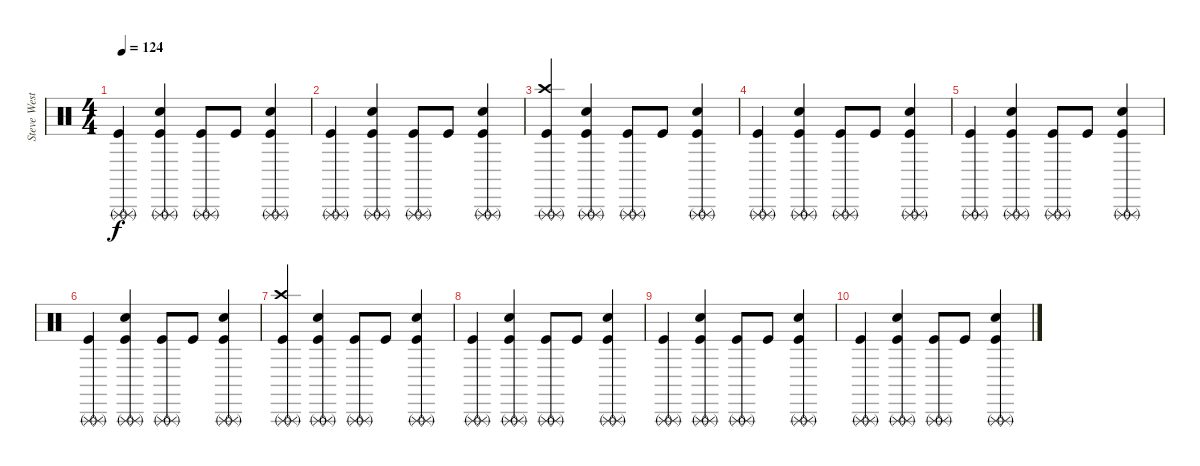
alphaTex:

\track ("Steve West" "Steve West") {instrument percussion}
\staff {score}
\articulation defaults
\ts (4 4)
\tempo 124
\clef neutral
\ks c
("Triangle (rnute)" "Triangle (rnute)" "Kick (hit)").4{dy f} ("Triangle (rnute)" "Triangle (rnute)" "Snare (hit) 2" "Kick (hit)").4 ("Triangle (rnute)" "Triangle (rnute)" "Kick (hit)").8 "Kick (hit)".8 ("Triangle (rnute)" "Triangle (rnute)" "Snare (hit) 2" "Kick (hit)").4 |
("Triangle (rnute)" "Triangle (rnute)" "Kick (hit)").4 ("Triangle (rnute)" "Triangle (rnute)" "Snare (hit) 2" "Kick (hit)").4 ("Triangle (rnute)" "Triangle (rnute)" "Kick (hit)").8 "Kick (hit)".8 ("Triangle (rnute)" "Triangle (rnute)" "Snare (hit) 2" "Kick (hit)").4 |
("Crash high (hit)" "Triangle (rnute)" "Triangle (rnute)" "Kick (hit)").4 ("Triangle (rnute)" "Triangle (rnute)" "Snare (hit) 2" "Kick (hit)").4 ("Triangle (rnute)" "Triangle (rnute)" "Kick (hit)").8 "Kick (hit)".8 ("Triangle (rnute)" "Triangle (rnute)" "Snare (hit) 2" "Kick (hit)").4 |
("Triangle (rnute)" "Triangle (rnute)" "Kick (hit)").4 ("Triangle (rnute)" "Triangle (rnute)" "Snare (hit) 2" "Kick (hit)").4 ("Triangle (rnute)" "Triangle (rnute)" "Kick (hit)").8 "Kick (hit)".8 ("Triangle (rnute)" "Triangle (rnute)" "Snare (hit) 2" "Kick (hit)").4 |
("Triangle (rnute)" "Triangle (rnute)" "Kick (hit)").4 ("Triangle (rnute)" "Triangle (rnute)" "Snare (hit) 2" "Kick (hit)").4 ("Triangle (rnute)" "Triangle (rnute)" "Kick (hit)").8 "Kick (hit)".8 ("Triangle (rnute)" "Triangle (rnute)" "Snare (hit) 2" "Kick (hit)").4 |
("Triangle (rnute)" "Triangle (rnute)" "Kick (hit)").4 ("Triangle (rnute)" "Triangle (rnute)" "Snare (hit) 2" "Kick (hit)").4 ("Triangle (rnute)" "Triangle (rnute)" "Kick (hit)").8 "Kick (hit)".8 ("Triangle (rnute)" "Triangle (rnute)" "Snare (hit) 2" "Kick (hit)").4 |
("Crash high (hit)" "Triangle (rnute)" "Triangle (rnute)" "Kick (hit)").4 ("Triangle (rnute)" "Triangle (rnute)" "Snare (hit) 2" "Kick (hit)").4 ("Triangle (rnute)" "Triangle (rnute)" "Kick (hit)").8 "Kick (hit)".8 ("Triangle (rnute)" "Triangle (rnute)" "Snare (hit) 2" "Kick (hit)").4 |
("Triangle (rnute)" "Triangle (rnute)" "Kick (hit)").4 ("Triangle (rnute)" "Triangle (rnute)" "Snare (hit) 2" "Kick (hit)").4 ("Triangle (rnute)" "Triangle (rnute)" "Kick (hit)").8 "Kick (hit)".8 ("Triangle (rnute)" "Triangle (rnute)" "Snare (hit) 2" "Kick (hit)").4 |
("Triangle (rnute)" "Triangle (rnute)" "Kick (hit)").4 ("Triangle (rnute)" "Triangle (rnute)" "Snare (hit) 2" "Kick (hit)").4 ("Triangle (rnute)" "Triangle (rnute)" "Kick (hit)").8 "Kick (hit)".8 ("Triangle (rnute)" "Triangle (rnute)" "Snare (hit) 2" "Kick (hit)").4 |
("Triangle (rnute)" "Triangle (rnute)" "Kick (hit)").4 ("Triangle (rnute)" "Triangle (rnute)" "Snare (hit) 2" "Kick (hit)").4 ("Triangle (rnute)" "Triangle (rnute)" "Kick (hit)").8 "Kick (hit)".8 ("Triangle (rnute)" "Triangle (rnute)" "Snare (hit) 2" "Kick (hit)").4
